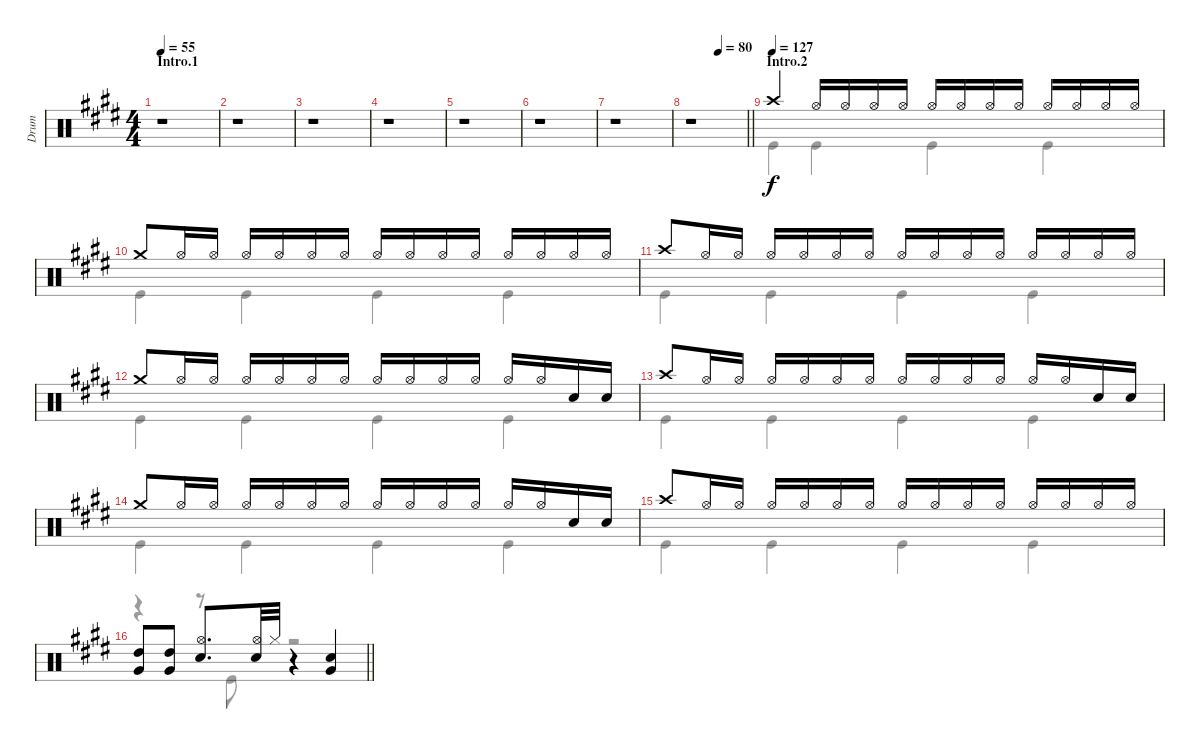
\track ("Drum" "Drum") {instrument percussion}
\staff {score}
\articulation defaults
\voice
\ts (4 4)
\section ("" "Intro.1")
\tempo 55
\clef neutral
\ks e
r.1{dy f} |
r.1 |
r.1 |
r.1 |
r.1 |
r.1 |
r.1 |
\tempo (80 0.5)
\barLineRight lightlight
r.1 |
\section ("" "Intro.2")
\tempo (127)
"Crash high (hit)".4 "Hi-Hat (open)".16 "Hi-Hat (open)".16 "Hi-Hat (open)".16 "Hi-Hat (open)".16 "Hi-Hat (open)".16 "Hi-Hat (open)".16 "Hi-Hat (open)".16 "Hi-Hat (open)".16 "Hi-Hat (open)".16 "Hi-Hat (open)".16 "Hi-Hat (open)".16 "Hi-Hat (open)".16 |
"Crash medium (hit)".8 "Hi-Hat (open)".16 "Hi-Hat (open)".16 "Hi-Hat (open)".16 "Hi-Hat (open)".16 "Hi-Hat (open)".16 "Hi-Hat (open)".16 "Hi-Hat (open)".16 "Hi-Hat (open)".16 "Hi-Hat (open)".16 "Hi-Hat (open)".16 "Hi-Hat (open)".16 "Hi-Hat (open)".16 "Hi-Hat (open)".16 "Hi-Hat (open)".16 |
"Crash high (hit)".8 "Hi-Hat (open)".16 "Hi-Hat (open)".16 "Hi-Hat (open)".16 "Hi-Hat (open)".16 "Hi-Hat (open)".16 "Hi-Hat (open)".16 "Hi-Hat (open)".16 "Hi-Hat (open)".16 "Hi-Hat (open)".16 "Hi-Hat (open)".16 "Hi-Hat (open)".16 "Hi-Hat (open)".16 "Hi-Hat (open)".16 "Hi-Hat (open)".16 |
"Crash medium (hit)".8 "Hi-Hat (open)".16 "Hi-Hat (open)".16 "Hi-Hat (open)".16 "Hi-Hat (open)".16 "Hi-Hat (open)".16 "Hi-Hat (open)".16 "Hi-Hat (open)".16 "Hi-Hat (open)".16 "Hi-Hat (open)".16 "Hi-Hat (open)".16 "Hi-Hat (open)".16 "Hi-Hat (open)".16 "Snare (hit) 2".16 "Snare (hit) 2".16 |
"Crash high (hit)".8 "Hi-Hat (open)".16 "Hi-Hat (open)".16 "Hi-Hat (open)".16 "Hi-Hat (open)".16 "Hi-Hat (open)".16 "Hi-Hat (open)".16 "Hi-Hat (open)".16 "Hi-Hat (open)".16 "Hi-Hat (open)".16 "Hi-Hat (open)".16 "Hi-Hat (open)".16 "Hi-Hat (open)".16 "Snare (hit) 2".16 "Snare (hit) 2".16 |
"Crash medium (hit)".8 "Hi-Hat (open)".16 "Hi-Hat (open)".16 "Hi-Hat (open)".16 "Hi-Hat (open)".16 "Hi-Hat (open)".16 "Hi-Hat (open)".16 "Hi-Hat (open)".16 "Hi-Hat (open)".16 "Hi-Hat (open)".16 "Hi-Hat (open)".16 "Hi-Hat (open)".16 "Hi-Hat (open)".16 "Snare (hit) 2".16 "Snare (hit) 2".16 |
"Crash high (hit)".8 "Hi-Hat (open)".16 "Hi-Hat (open)".16 "Hi-Hat (open)".16 "Hi-Hat (open)".16 "Hi-Hat (open)".16 "Hi-Hat (open)".16 "Hi-Hat (open)".16 "Hi-Hat (open)".16 "Hi-Hat (open)".16 "Hi-Hat (open)".16 "Hi-Hat (open)".16 "Hi-Hat (open)".16 "Hi-Hat (open)".16 "Hi-Hat (open)".16 |
\barLineRight lightlight
("High Tom (hit)" "Very Low Tom (hit)").8 ("Very Low Tom (hit)" "High Tom (hit)").8 ("Snare (hit) 2" "Hi-Hat (open)").8{d} ("Snare (hit) 2" "Hi-Hat (open)").32 "Hi-Hat (closed)".32 r.4 ("Snare (hit) 2" "Very Low Tom (hit)").4
\voice
\clef neutral
\ottava regular
\simile none
\ks e
|
|
|
|
|
|
|
\barLineRight lightlight
|
"Kick (hit)".4 "Kick (hit)".4 "Kick (hit)".4 "Kick (hit)".4 |
"Kick (hit)".4 "Kick (hit)".4 "Kick (hit)".4 "Kick (hit)".4 |
"Kick (hit)".4 "Kick (hit)".4 "Kick (hit)".4 "Kick (hit)".4 |
"Kick (hit)".4 "Kick (hit)".4 "Kick (hit)".4 "Kick (hit)".4 |
"Kick (hit)".4 "Kick (hit)".4 "Kick (hit)".4 "Kick (hit)".4 |
"Kick (hit)".4 "Kick (hit)".4 "Kick (hit)".4 "Kick (hit)".4 |
"Kick (hit)".4 "Kick (hit)".4 "Kick (hit)".4 "Kick (hit)".4 |
\barLineRight lightlight
r.4 r.8 "Kick (hit)".8 r.2
